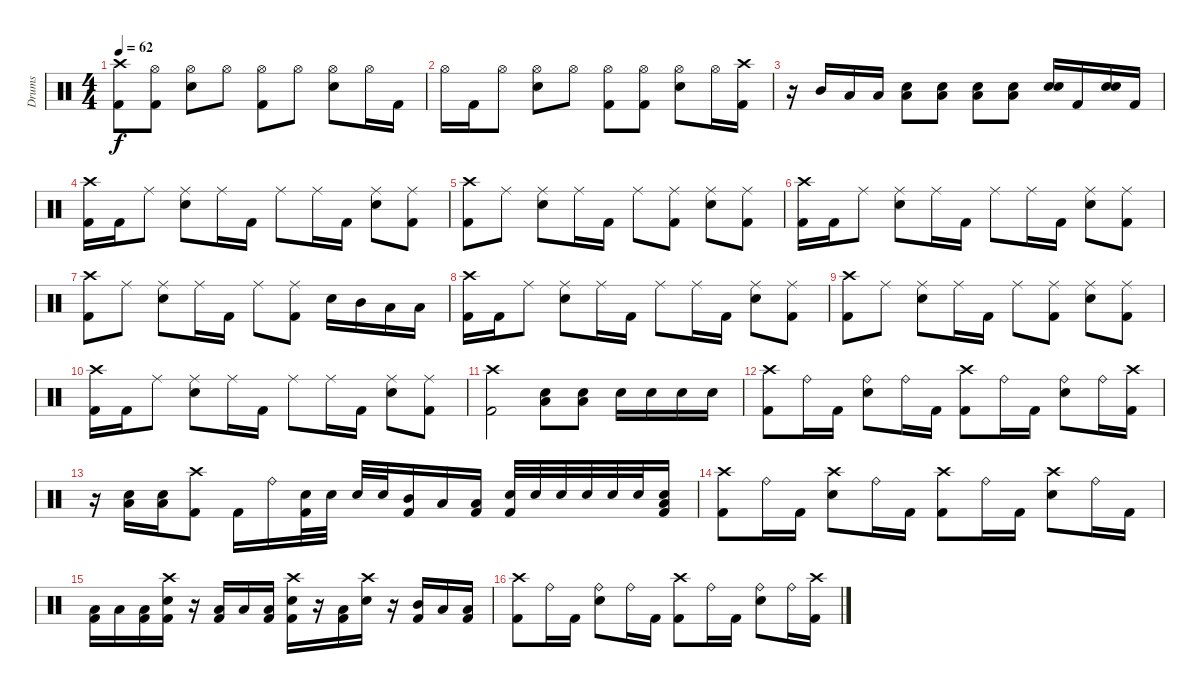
\track ("Drums" "Drums") {instrument percussion}
\staff {score}
\articulation defaults
\ts (4 4)
\tempo 62
\clef neutral
\ks c
("Crash high (hit)" "Kick (hit) 2").8{dy f} ("Hi-Hat (open)" "Kick (hit) 2").8 ("Hi-Hat (open)" "Snare (hit) 2").8 "Hi-Hat (open)".8 ("Hi-Hat (open)" "Kick (hit) 2").8 "Hi-Hat (open)".8 ("Hi-Hat (open)" "Snare (hit) 2").8 "Hi-Hat (open)".16 "Kick (hit) 2".16 |
"Hi-Hat (open)".16 "Kick (hit) 2".16 "Hi-Hat (open)".8 ("Hi-Hat (open)" "Snare (hit) 2").8 "Hi-Hat (open)".8 ("Hi-Hat (open)" "Kick (hit) 2").8 ("Hi-Hat (open)" "Kick (hit) 2").8 ("Hi-Hat (open)" "Snare (hit) 2").8 "Hi-Hat (open)".16 ("Crash high (hit)" "Kick (hit) 2").16 |
r.16 "Mid Tom (hit)".16 "Low Tom (hit)".16 "Low Floor Tom (hit)".16 ("Low Floor Tom (hit)" "Snare (hit) 2").8 ("Low Floor Tom (hit)" "Snare (hit) 2").8 ("Low Floor Tom (hit)" "Snare (hit) 2").8 ("Low Floor Tom (hit)" "Snare (hit) 2").8 ("Snare (hit) 2" "Snare (hit) 2").16{bd 240} "Kick (hit) 2".16 ("Snare (hit) 2" "Snare (hit) 2").16{bd 240} "Kick (hit) 2".16 |
("Crash high (hit)" "Kick (hit) 2").16 "Kick (hit) 2".16 "Ride (middle)".8 ("Ride (middle)" "Snare (hit) 2").8 "Ride (middle)".16 "Kick (hit) 2".16 "Ride (middle)".8 "Ride (middle)".16 "Kick (hit) 2".16 ("Ride (middle)" "Snare (hit) 2").8 ("Ride (middle)" "Kick (hit) 2").8 |
("Crash high (hit)" "Kick (hit) 2").8 "Ride (middle)".8 ("Ride (middle)" "Snare (hit) 2").8 "Ride (middle)".16 "Kick (hit) 2".16 "Ride (middle)".8 ("Ride (middle)" "Kick (hit) 2").8 ("Ride (middle)" "Snare (hit) 2").8 ("Ride (middle)" "Kick (hit) 2").8 |
("Crash high (hit)" "Kick (hit) 2").16 "Kick (hit) 2".16 "Ride (middle)".8 ("Ride (middle)" "Snare (hit) 2").8 "Ride (middle)".16 "Kick (hit) 2".16 "Ride (middle)".8 "Ride (middle)".16 "Kick (hit) 2".16 ("Ride (middle)" "Snare (hit) 2").8 ("Ride (middle)" "Kick (hit) 2").8 |
("Crash high (hit)" "Kick (hit) 2").8 "Ride (middle)".8 ("Ride (middle)" "Snare (hit) 2").8 "Ride (middle)".16 "Kick (hit) 2".16 "Ride (middle)".8 ("Ride (middle)" "Kick (hit) 2").8 "Snare (hit) 2".16 "Mid Tom (hit)".16 "Low Tom (hit)".16 "Low Floor Tom (hit)".16 |
("Crash high (hit)" "Kick (hit) 2").16 "Kick (hit) 2".16 "Ride (middle)".8 ("Ride (middle)" "Snare (hit) 2").8 "Ride (middle)".16 "Kick (hit) 2".16 "Ride (middle)".8 "Ride (middle)".16 "Kick (hit) 2".16 ("Ride (middle)" "Snare (hit) 2").8 ("Ride (middle)" "Kick (hit) 2").8 |
("Crash high (hit)" "Kick (hit) 2").8 "Ride (middle)".8 ("Ride (middle)" "Snare (hit) 2").8 "Ride (middle)".16 "Kick (hit) 2".16 "Ride (middle)".8 ("Ride (middle)" "Kick (hit) 2").8 ("Ride (middle)" "Snare (hit) 2").8 ("Ride (middle)" "Kick (hit) 2").8 |
("Crash high (hit)" "Kick (hit) 2").16 "Kick (hit) 2".16 "Ride (middle)".8 ("Ride (middle)" "Snare (hit) 2").8 "Ride (middle)".16 "Kick (hit) 2".16 "Ride (middle)".8 "Ride (middle)".16 "Kick (hit) 2".16 ("Ride (middle)" "Snare (hit) 2").8 ("Ride (middle)" "Kick (hit) 2").8 |
("Crash high (hit)" "Kick (hit) 2").2 ("Low Floor Tom (hit)" "Snare (hit) 2").8 ("Low Floor Tom (hit)" "Snare (hit) 2").8 "Snare (hit) 2".16 "Snare (hit) 2".16 "Snare (hit) 2".16 "Snare (hit) 2".16 |
("Crash high (hit)" "Kick (hit) 2").8 "Ride (bell)".16 "Kick (hit) 2".16 ("Ride (bell)" "Snare (hit) 2").8 "Ride (bell)".16 "Kick (hit) 2".16 ("Crash high (hit)" "Kick (hit) 2").8 "Ride (bell)".16 "Kick (hit) 2".16 ("Ride (bell)" "Snare (hit) 2").8 "Ride (bell)".16 ("Crash high (hit)" "Kick (hit) 2").16 |
r.16 ("Low Floor Tom (hit)" "Snare (hit) 2").16 ("Low Floor Tom (hit)" "Snare (hit) 2").16 ("Crash high (hit)" "Kick (hit) 2").8 "Kick (hit) 2".16 "Ride (bell)".16 ("Snare (hit) 2" "Kick (hit) 2").32 "Snare (hit) 2".32 "Snare (hit) 2".32 "Snare (hit) 2".32 ("Mid Tom (hit)" "Kick (hit) 2").16 "Low Tom (hit)".16 ("Low Floor Tom (hit)" "Kick (hit) 2").16 ("Snare (hit) 2" "Kick (hit) 2").32 "Snare (hit) 2".32 "Snare (hit) 2".32 "Snare (hit) 2".32 "Snare (hit) 2".32 "Snare (hit) 2".32 ("Low Floor Tom (hit)" "Snare (hit) 2" "Kick (hit) 2").16 |
("Crash high (hit)" "Kick (hit) 2").8 "Ride (bell)".16 "Kick (hit) 2".16 ("Crash high (hit)" "Snare (hit) 2").8 "Ride (bell)".16 "Kick (hit) 2".16 ("Crash high (hit)" "Kick (hit) 2").8 "Ride (bell)".16 "Kick (hit) 2".16 ("Crash high (hit)" "Snare (hit) 2").8 "Ride (bell)".16 "Kick (hit) 2".16 |
("Low Floor Tom (hit)" "Kick (hit) 2").16 "Low Floor Tom (hit)".16 ("Low Floor Tom (hit)" "Kick (hit) 2").16 ("Crash high (hit)" "Snare (hit) 2" "Kick (hit) 2").16 r.16 ("Low Floor Tom (hit)" "Kick (hit) 2").16 "Low Floor Tom (hit)".16 ("Low Floor Tom (hit)" "Kick (hit) 2").16 ("Crash high (hit)" "Snare (hit) 2" "Kick (hit) 2").16 r.16 ("Low Floor Tom (hit)" "Kick (hit) 2").16 ("Crash high (hit)" "Snare (hit) 2").16 r.16 ("Mid Tom (hit)" "Kick (hit) 2").16 "Low Tom (hit)".16 ("Low Floor Tom (hit)" "Kick (hit) 2").16 |
("Crash high (hit)" "Kick (hit) 2").8 "Ride (bell)".16 "Kick (hit) 2".16 ("Ride (bell)" "Snare (hit) 2").8 "Ride (bell)".16 "Kick (hit) 2".16 ("Crash high (hit)" "Kick (hit) 2").8 "Ride (bell)".16 "Kick (hit) 2".16 ("Ride (bell)" "Snare (hit) 2").8 "Ride (bell)".16 ("Crash high (hit)" "Kick (hit) 2").16
